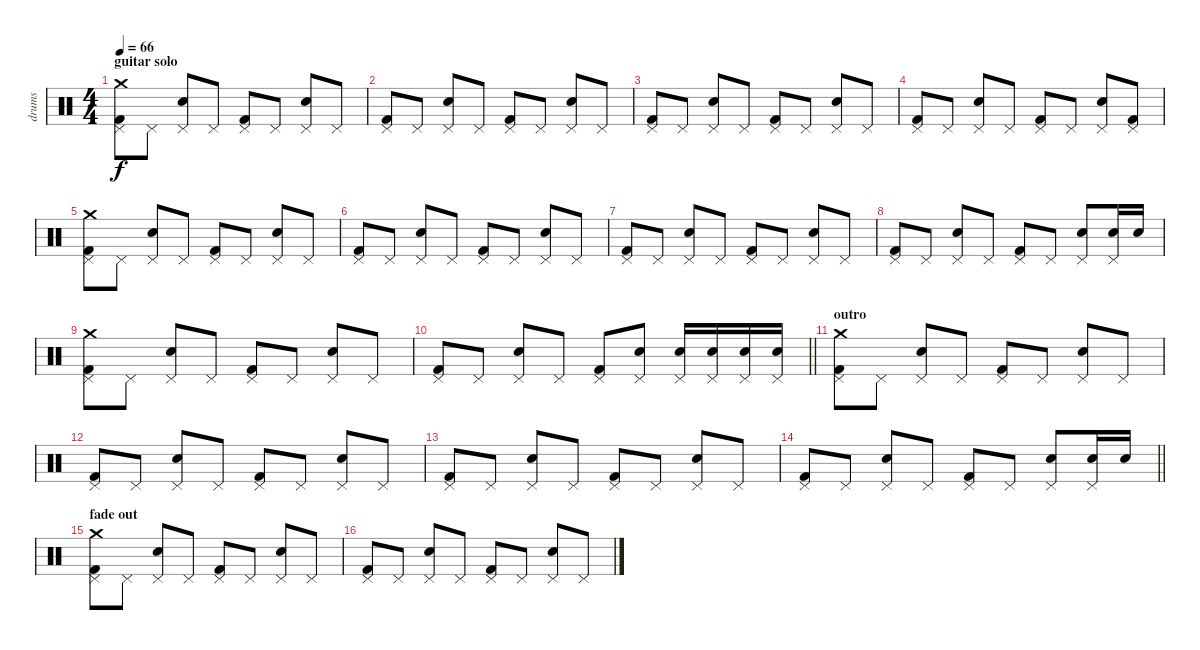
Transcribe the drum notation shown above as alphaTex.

\track ("drums" "drums") {instrument percussion}
\staff {score}
\articulation defaults
\ts (4 4)
\section ("" "guitar solo")
\tempo 66
\clef neutral
\ks c
("Kick (hit) 2" "Pedal Hi-Hat (hit)" "Crash medium (hit)").8{dy f} "Pedal Hi-Hat (hit)".8 ("Snare (hit) 2" "Pedal Hi-Hat (hit)").8 "Pedal Hi-Hat (hit)".8 ("Kick (hit) 2" "Pedal Hi-Hat (hit)").8 "Pedal Hi-Hat (hit)".8 ("Snare (hit) 2" "Pedal Hi-Hat (hit)").8 "Pedal Hi-Hat (hit)".8 |
("Kick (hit) 2" "Pedal Hi-Hat (hit)").8 "Pedal Hi-Hat (hit)".8 ("Snare (hit) 2" "Pedal Hi-Hat (hit)").8 "Pedal Hi-Hat (hit)".8 ("Kick (hit) 2" "Pedal Hi-Hat (hit)").8 "Pedal Hi-Hat (hit)".8 ("Snare (hit) 2" "Pedal Hi-Hat (hit)").8 "Pedal Hi-Hat (hit)".8 |
("Kick (hit) 2" "Pedal Hi-Hat (hit)").8 "Pedal Hi-Hat (hit)".8 ("Snare (hit) 2" "Pedal Hi-Hat (hit)").8 "Pedal Hi-Hat (hit)".8 ("Kick (hit) 2" "Pedal Hi-Hat (hit)").8 "Pedal Hi-Hat (hit)".8 ("Snare (hit) 2" "Pedal Hi-Hat (hit)").8 "Pedal Hi-Hat (hit)".8 |
("Kick (hit) 2" "Pedal Hi-Hat (hit)").8 "Pedal Hi-Hat (hit)".8 ("Snare (hit) 2" "Pedal Hi-Hat (hit)").8 "Pedal Hi-Hat (hit)".8 ("Kick (hit) 2" "Pedal Hi-Hat (hit)").8 "Pedal Hi-Hat (hit)".8 ("Snare (hit) 2" "Pedal Hi-Hat (hit)").8 ("Kick (hit) 2" "Pedal Hi-Hat (hit)").8 |
("Kick (hit) 2" "Pedal Hi-Hat (hit)" "Crash medium (hit)").8 "Pedal Hi-Hat (hit)".8 ("Snare (hit) 2" "Pedal Hi-Hat (hit)").8 "Pedal Hi-Hat (hit)".8 ("Kick (hit) 2" "Pedal Hi-Hat (hit)").8 "Pedal Hi-Hat (hit)".8 ("Snare (hit) 2" "Pedal Hi-Hat (hit)").8 "Pedal Hi-Hat (hit)".8 |
("Kick (hit) 2" "Pedal Hi-Hat (hit)").8 "Pedal Hi-Hat (hit)".8 ("Snare (hit) 2" "Pedal Hi-Hat (hit)").8 "Pedal Hi-Hat (hit)".8 ("Kick (hit) 2" "Pedal Hi-Hat (hit)").8 "Pedal Hi-Hat (hit)".8 ("Snare (hit) 2" "Pedal Hi-Hat (hit)").8 "Pedal Hi-Hat (hit)".8 |
("Kick (hit) 2" "Pedal Hi-Hat (hit)").8 "Pedal Hi-Hat (hit)".8 ("Snare (hit) 2" "Pedal Hi-Hat (hit)").8 "Pedal Hi-Hat (hit)".8 ("Kick (hit) 2" "Pedal Hi-Hat (hit)").8 "Pedal Hi-Hat (hit)".8 ("Snare (hit) 2" "Pedal Hi-Hat (hit)").8 "Pedal Hi-Hat (hit)".8 |
("Kick (hit) 2" "Pedal Hi-Hat (hit)").8 "Pedal Hi-Hat (hit)".8 ("Snare (hit) 2" "Pedal Hi-Hat (hit)").8 "Pedal Hi-Hat (hit)".8 ("Kick (hit) 2" "Pedal Hi-Hat (hit)").8 "Pedal Hi-Hat (hit)".8 ("Snare (hit) 2" "Pedal Hi-Hat (hit)").8 ("Snare (hit) 2" "Pedal Hi-Hat (hit)").16 "Snare (hit) 2".16 |
("Kick (hit) 2" "Pedal Hi-Hat (hit)" "Crash medium (hit)").8 "Pedal Hi-Hat (hit)".8 ("Snare (hit) 2" "Pedal Hi-Hat (hit)").8 "Pedal Hi-Hat (hit)".8 ("Kick (hit) 2" "Pedal Hi-Hat (hit)").8 "Pedal Hi-Hat (hit)".8 ("Snare (hit) 2" "Pedal Hi-Hat (hit)").8 "Pedal Hi-Hat (hit)".8 |
\barLineRight lightlight
("Kick (hit) 2" "Pedal Hi-Hat (hit)").8 "Pedal Hi-Hat (hit)".8 ("Snare (hit) 2" "Pedal Hi-Hat (hit)").8 "Pedal Hi-Hat (hit)".8 ("Kick (hit) 2" "Pedal Hi-Hat (hit)").8 ("Snare (hit) 2" "Pedal Hi-Hat (hit)").8 ("Snare (hit) 2" "Pedal Hi-Hat (hit)").16 ("Snare (hit) 2" "Pedal Hi-Hat (hit)").16 ("Snare (hit) 2" "Pedal Hi-Hat (hit)").16 ("Snare (hit) 2" "Pedal Hi-Hat (hit)").16 |
\section ("" "outro")
("Kick (hit) 2" "Pedal Hi-Hat (hit)" "Crash medium (hit)").8 "Pedal Hi-Hat (hit)".8 ("Snare (hit) 2" "Pedal Hi-Hat (hit)").8 "Pedal Hi-Hat (hit)".8 ("Kick (hit) 2" "Pedal Hi-Hat (hit)").8 "Pedal Hi-Hat (hit)".8 ("Snare (hit) 2" "Pedal Hi-Hat (hit)").8 "Pedal Hi-Hat (hit)".8 |
("Kick (hit) 2" "Pedal Hi-Hat (hit)").8 "Pedal Hi-Hat (hit)".8 ("Snare (hit) 2" "Pedal Hi-Hat (hit)").8 "Pedal Hi-Hat (hit)".8 ("Kick (hit) 2" "Pedal Hi-Hat (hit)").8 "Pedal Hi-Hat (hit)".8 ("Snare (hit) 2" "Pedal Hi-Hat (hit)").8 "Pedal Hi-Hat (hit)".8 |
("Kick (hit) 2" "Pedal Hi-Hat (hit)").8 "Pedal Hi-Hat (hit)".8 ("Snare (hit) 2" "Pedal Hi-Hat (hit)").8 "Pedal Hi-Hat (hit)".8 ("Kick (hit) 2" "Pedal Hi-Hat (hit)").8 "Pedal Hi-Hat (hit)".8 ("Snare (hit) 2" "Pedal Hi-Hat (hit)").8 "Pedal Hi-Hat (hit)".8 |
\barLineRight lightlight
("Kick (hit) 2" "Pedal Hi-Hat (hit)").8 "Pedal Hi-Hat (hit)".8 ("Snare (hit) 2" "Pedal Hi-Hat (hit)").8 "Pedal Hi-Hat (hit)".8 ("Kick (hit) 2" "Pedal Hi-Hat (hit)").8 "Pedal Hi-Hat (hit)".8 ("Snare (hit) 2" "Pedal Hi-Hat (hit)").8 ("Snare (hit) 2" "Pedal Hi-Hat (hit)").16 "Snare (hit) 2".16 |
\section ("" "fade out")
("Kick (hit) 2" "Pedal Hi-Hat (hit)" "Crash medium (hit)").8 "Pedal Hi-Hat (hit)".8 ("Snare (hit) 2" "Pedal Hi-Hat (hit)").8 "Pedal Hi-Hat (hit)".8 ("Kick (hit) 2" "Pedal Hi-Hat (hit)").8 "Pedal Hi-Hat (hit)".8 ("Snare (hit) 2" "Pedal Hi-Hat (hit)").8 "Pedal Hi-Hat (hit)".8 |
("Kick (hit) 2" "Pedal Hi-Hat (hit)").8 "Pedal Hi-Hat (hit)".8 ("Snare (hit) 2" "Pedal Hi-Hat (hit)").8 "Pedal Hi-Hat (hit)".8 ("Kick (hit) 2" "Pedal Hi-Hat (hit)").8 "Pedal Hi-Hat (hit)".8 ("Snare (hit) 2" "Pedal Hi-Hat (hit)").8 "Pedal Hi-Hat (hit)".8
